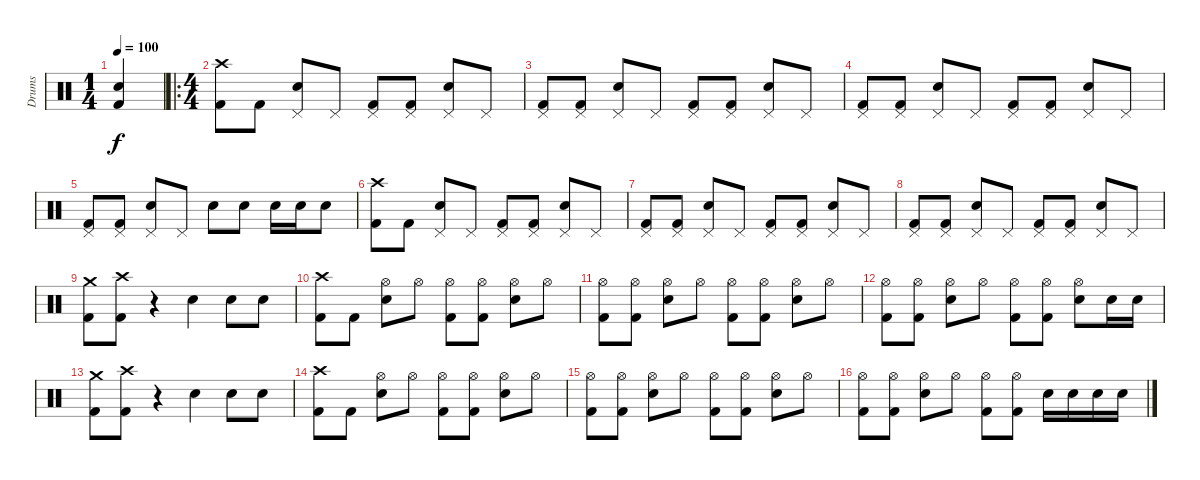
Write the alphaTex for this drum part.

\track ("Drums" "Drums") {instrument percussion}
\staff {score}
\articulation defaults
\ts (1 4)
\tempo 100
\clef neutral
\ks c
("Snare (hit) 2" "Kick (hit) 2").4{dy f} |
\ro
\ts (4 4)
("Crash high (hit)" "Kick (hit) 2").8 "Kick (hit) 2".8 ("Pedal Hi-Hat (hit)" "Snare (hit) 2").8 "Pedal Hi-Hat (hit)".8 ("Pedal Hi-Hat (hit)" "Kick (hit) 2").8 ("Pedal Hi-Hat (hit)" "Kick (hit) 2").8 ("Pedal Hi-Hat (hit)" "Snare (hit) 2").8 "Pedal Hi-Hat (hit)".8 |
("Pedal Hi-Hat (hit)" "Kick (hit) 2").8 ("Pedal Hi-Hat (hit)" "Kick (hit) 2").8 ("Pedal Hi-Hat (hit)" "Snare (hit) 2").8 "Pedal Hi-Hat (hit)".8 ("Pedal Hi-Hat (hit)" "Kick (hit) 2").8 ("Pedal Hi-Hat (hit)" "Kick (hit) 2").8 ("Pedal Hi-Hat (hit)" "Snare (hit) 2").8 "Pedal Hi-Hat (hit)".8 |
("Pedal Hi-Hat (hit)" "Kick (hit) 2").8 ("Pedal Hi-Hat (hit)" "Kick (hit) 2").8 ("Pedal Hi-Hat (hit)" "Snare (hit) 2").8 "Pedal Hi-Hat (hit)".8 ("Pedal Hi-Hat (hit)" "Kick (hit) 2").8 ("Pedal Hi-Hat (hit)" "Kick (hit) 2").8 ("Pedal Hi-Hat (hit)" "Snare (hit) 2").8 "Pedal Hi-Hat (hit)".8 |
("Pedal Hi-Hat (hit)" "Kick (hit) 2").8 ("Pedal Hi-Hat (hit)" "Kick (hit) 2").8 ("Pedal Hi-Hat (hit)" "Snare (hit) 2").8 "Pedal Hi-Hat (hit)".8 "Snare (hit) 2".8 "Snare (hit) 2".8 "Snare (hit) 2".16 "Snare (hit) 2".16 "Snare (hit) 2".8 |
("Crash high (hit)" "Kick (hit) 2").8 "Kick (hit) 2".8 ("Pedal Hi-Hat (hit)" "Snare (hit) 2").8 "Pedal Hi-Hat (hit)".8 ("Pedal Hi-Hat (hit)" "Kick (hit) 2").8 ("Pedal Hi-Hat (hit)" "Kick (hit) 2").8 ("Pedal Hi-Hat (hit)" "Snare (hit) 2").8 "Pedal Hi-Hat (hit)".8 |
("Pedal Hi-Hat (hit)" "Kick (hit) 2").8 ("Pedal Hi-Hat (hit)" "Kick (hit) 2").8 ("Pedal Hi-Hat (hit)" "Snare (hit) 2").8 "Pedal Hi-Hat (hit)".8 ("Pedal Hi-Hat (hit)" "Kick (hit) 2").8 ("Pedal Hi-Hat (hit)" "Kick (hit) 2").8 ("Pedal Hi-Hat (hit)" "Snare (hit) 2").8 "Pedal Hi-Hat (hit)".8 |
("Pedal Hi-Hat (hit)" "Kick (hit) 2").8 ("Pedal Hi-Hat (hit)" "Kick (hit) 2").8 ("Pedal Hi-Hat (hit)" "Snare (hit) 2").8 "Pedal Hi-Hat (hit)".8 ("Pedal Hi-Hat (hit)" "Kick (hit) 2").8 ("Pedal Hi-Hat (hit)" "Kick (hit) 2").8 ("Pedal Hi-Hat (hit)" "Snare (hit) 2").8 "Pedal Hi-Hat (hit)".8 |
("Crash medium (hit)" "Kick (hit) 2").8 ("Crash high (hit)" "Kick (hit) 2").8 r.4 "Snare (hit) 2".4 "Snare (hit) 2".8 "Snare (hit) 2".8 |
("Crash high (hit)" "Kick (hit) 2").8 "Kick (hit) 2".8 ("Hi-Hat (open)" "Snare (hit) 2").8 "Hi-Hat (open)".8 ("Hi-Hat (open)" "Kick (hit) 2").8 ("Hi-Hat (open)" "Kick (hit) 2").8 ("Hi-Hat (open)" "Snare (hit) 2").8 "Hi-Hat (open)".8 |
("Hi-Hat (open)" "Kick (hit) 2").8 ("Hi-Hat (open)" "Kick (hit) 2").8 ("Hi-Hat (open)" "Snare (hit) 2").8 "Hi-Hat (open)".8 ("Hi-Hat (open)" "Kick (hit) 2").8 ("Hi-Hat (open)" "Kick (hit) 2").8 ("Hi-Hat (open)" "Snare (hit) 2").8 "Hi-Hat (open)".8 |
("Hi-Hat (open)" "Kick (hit) 2").8 ("Hi-Hat (open)" "Kick (hit) 2").8 ("Hi-Hat (open)" "Snare (hit) 2").8 "Hi-Hat (open)".8 ("Hi-Hat (open)" "Kick (hit) 2").8 ("Hi-Hat (open)" "Kick (hit) 2").8 ("Hi-Hat (open)" "Snare (hit) 2").8 "Snare (hit) 2".16 "Snare (hit) 2".16 |
("Crash medium (hit)" "Kick (hit) 2").8 ("Crash high (hit)" "Kick (hit) 2").8 r.4 "Snare (hit) 2".4 "Snare (hit) 2".8 "Snare (hit) 2".8 |
("Crash high (hit)" "Kick (hit) 2").8 "Kick (hit) 2".8 ("Hi-Hat (open)" "Snare (hit) 2").8 "Hi-Hat (open)".8 ("Hi-Hat (open)" "Kick (hit) 2").8 ("Hi-Hat (open)" "Kick (hit) 2").8 ("Hi-Hat (open)" "Snare (hit) 2").8 "Hi-Hat (open)".8 |
("Hi-Hat (open)" "Kick (hit) 2").8 ("Hi-Hat (open)" "Kick (hit) 2").8 ("Hi-Hat (open)" "Snare (hit) 2").8 "Hi-Hat (open)".8 ("Hi-Hat (open)" "Kick (hit) 2").8 ("Hi-Hat (open)" "Kick (hit) 2").8 ("Hi-Hat (open)" "Snare (hit) 2").8 "Hi-Hat (open)".8 |
("Hi-Hat (open)" "Kick (hit) 2").8 ("Hi-Hat (open)" "Kick (hit) 2").8 ("Hi-Hat (open)" "Snare (hit) 2").8 "Hi-Hat (open)".8 ("Hi-Hat (open)" "Kick (hit) 2").8 ("Hi-Hat (open)" "Kick (hit) 2").8 "Snare (hit) 2".16 "Snare (hit) 2".16 "Snare (hit) 2".16 "Snare (hit) 2".16
